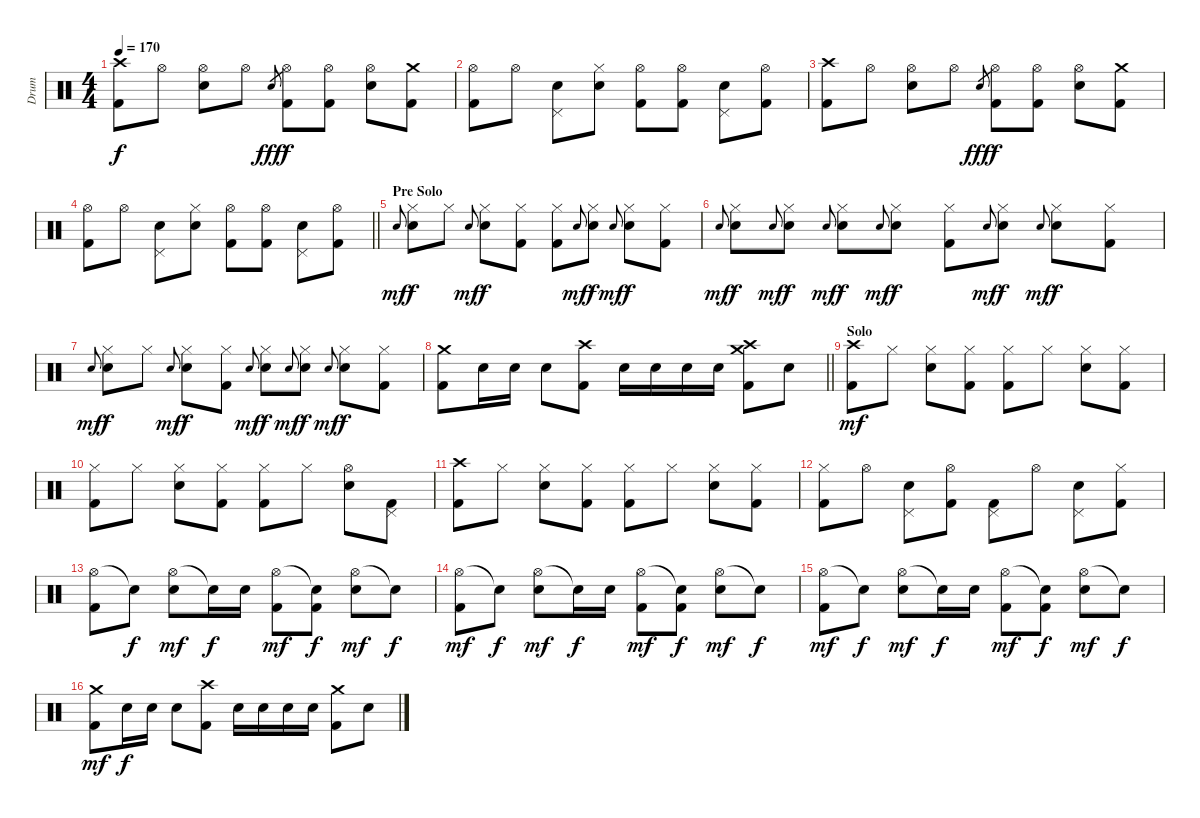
\track ("Drum" "Drum") {instrument percussion}
\staff {score}
\articulation defaults
\ts (4 4)
\tempo 170
\clef neutral
\ks c
("Crash high (hit)" "Kick (hit) 2").8{dy f} "Hi-Hat (open)".8 ("Hi-Hat (open)" "Electric Snare (hit)").8 "Hi-Hat (open)".8 "Electric Snare (hit)".8{gr dy fff} ("Hi-Hat (open)" "Kick (hit) 2").8{dy f} ("Hi-Hat (open)" "Kick (hit) 2").8 ("Hi-Hat (open)" "Electric Snare (hit)").8 ("Crash medium (hit)" "Kick (hit) 2").8 |
("Hi-Hat (open)" "Kick (hit) 2").8 "Hi-Hat (open)".8 ("Pedal Hi-Hat (hit)" "Electric Snare (hit)").8 ("Hi-Hat (closed)" "Electric Snare (hit)").8 ("Hi-Hat (open)" "Kick (hit) 2").8 ("Hi-Hat (open)" "Kick (hit) 2").8 ("Pedal Hi-Hat (hit)" "Electric Snare (hit)").8 ("Hi-Hat (open)" "Kick (hit) 2").8 |
("Crash high (hit)" "Kick (hit) 2").8 "Hi-Hat (open)".8 ("Hi-Hat (open)" "Electric Snare (hit)").8 "Hi-Hat (open)".8 "Electric Snare (hit)".8{gr dy fff} ("Hi-Hat (open)" "Kick (hit) 2").8{dy f} ("Hi-Hat (open)" "Kick (hit) 2").8 ("Hi-Hat (open)" "Electric Snare (hit)").8 ("Crash medium (hit)" "Kick (hit) 2").8 |
\barLineRight lightlight
("Hi-Hat (open)" "Kick (hit) 2").8 "Hi-Hat (open)".8 ("Pedal Hi-Hat (hit)" "Electric Snare (hit)").8 ("Hi-Hat (closed)" "Electric Snare (hit)").8 ("Hi-Hat (open)" "Kick (hit) 2").8 ("Hi-Hat (open)" "Kick (hit) 2").8 ("Pedal Hi-Hat (hit)" "Electric Snare (hit)").8 ("Hi-Hat (open)" "Kick (hit) 2").8 |
\section ("" "Pre Solo")
"Electric Snare (hit)".8{gr onbeat dy mf} ("Hi-Hat (closed)" "Electric Snare (hit)").8{dy f} "Hi-Hat (closed)".8 "Electric Snare (hit)".8{gr onbeat dy mf} ("Hi-Hat (closed)" "Electric Snare (hit)").8{dy f} ("Hi-Hat (closed)" "Kick (hit) 2").8 ("Hi-Hat (closed)" "Kick (hit) 2").8 "Electric Snare (hit)".8{gr onbeat dy mf} ("Hi-Hat (closed)" "Electric Snare (hit)").8{dy f} "Electric Snare (hit)".8{gr onbeat dy mf} ("Hi-Hat (closed)" "Electric Snare (hit)").8{dy f} ("Hi-Hat (closed)" "Kick (hit) 2").8 |
"Electric Snare (hit)".8{gr onbeat dy mf} ("Hi-Hat (closed)" "Electric Snare (hit)").8{dy f} "Electric Snare (hit)".8{gr onbeat dy mf} ("Hi-Hat (closed)" "Electric Snare (hit)").8{dy f} "Electric Snare (hit)".8{gr onbeat dy mf} ("Hi-Hat (closed)" "Electric Snare (hit)").8{dy f} "Electric Snare (hit)".8{gr onbeat dy mf} ("Hi-Hat (closed)" "Electric Snare (hit)").8{dy f} ("Hi-Hat (closed)" "Kick (hit) 2").8 "Electric Snare (hit)".8{gr onbeat dy mf} ("Hi-Hat (closed)" "Electric Snare (hit)").8{dy f} "Electric Snare (hit)".8{gr onbeat dy mf} ("Hi-Hat (closed)" "Electric Snare (hit)").8{dy f} ("Hi-Hat (closed)" "Kick (hit) 2").8 |
"Electric Snare (hit)".8{gr onbeat dy mf} ("Hi-Hat (closed)" "Electric Snare (hit)").8{dy f} "Hi-Hat (closed)".8 "Electric Snare (hit)".8{gr onbeat dy mf} ("Hi-Hat (closed)" "Electric Snare (hit)").8{dy f} ("Hi-Hat (closed)" "Kick (hit) 2").8 "Electric Snare (hit)".8{gr onbeat dy mf} ("Hi-Hat (closed)" "Electric Snare (hit)").8{dy f} "Electric Snare (hit)".8{gr onbeat dy mf} ("Hi-Hat (closed)" "Electric Snare (hit)").8{dy f} "Electric Snare (hit)".8{gr onbeat dy mf} ("Hi-Hat (closed)" "Electric Snare (hit)").8{dy f} ("Hi-Hat (closed)" "Kick (hit) 2").8 |
\barLineRight lightlight
("Crash medium (hit)" "Kick (hit) 2").8 "Electric Snare (hit)".16 "Electric Snare (hit)".16 "Electric Snare (hit)".8 ("Crash high (hit)" "Kick (hit) 2").8 "Electric Snare (hit)".16 "Electric Snare (hit)".16 "Electric Snare (hit)".16 "Electric Snare (hit)".16 ("Crash high (hit)" "Crash medium (hit)" "Kick (hit) 2").8 "Electric Snare (hit)".8 |
\section ("" "Solo")
("Crash high (hit)" "Kick (hit) 2").8{dy mf} "Hi-Hat (closed)".8 ("Hi-Hat (closed)" "Electric Snare (hit)").8 ("Hi-Hat (closed)" "Kick (hit) 2").8 ("Hi-Hat (closed)" "Kick (hit) 2").8 "Hi-Hat (closed)".8 ("Hi-Hat (closed)" "Electric Snare (hit)").8 ("Hi-Hat (closed)" "Kick (hit) 2").8 |
("Hi-Hat (closed)" "Kick (hit) 2").8 "Hi-Hat (closed)".8 ("Hi-Hat (closed)" "Electric Snare (hit)").8 ("Hi-Hat (closed)" "Kick (hit) 2").8 ("Hi-Hat (closed)" "Kick (hit) 2").8 "Hi-Hat (closed)".8 ("Hi-Hat (open)" "Electric Snare (hit)").8 ("Pedal Hi-Hat (hit)" "Kick (hit) 2").8 |
("Crash high (hit)" "Kick (hit) 2").8 "Hi-Hat (closed)".8 ("Hi-Hat (closed)" "Electric Snare (hit)").8 ("Hi-Hat (closed)" "Kick (hit) 2").8 ("Hi-Hat (closed)" "Kick (hit) 2").8 "Hi-Hat (closed)".8 ("Hi-Hat (closed)" "Electric Snare (hit)").8 ("Hi-Hat (closed)" "Kick (hit) 2").8 |
("Hi-Hat (closed)" "Kick (hit) 2").8 "Hi-Hat (open)".8 ("Pedal Hi-Hat (hit)" "Electric Snare (hit)").8 ("Hi-Hat (open)" "Kick (hit) 2").8 ("Pedal Hi-Hat (hit)" "Kick (hit) 2").8 "Hi-Hat (open)".8 ("Pedal Hi-Hat (hit)" "Electric Snare (hit)").8 ("Hi-Hat (closed)" "Kick (hit) 2").8 |
("Hi-Hat (open)" "Kick (hit) 2").8 "Snare (hit)"{t}.8{dy f} ("Hi-Hat (open)" "Electric Snare (hit)").8{dy mf} "Snare (hit)"{t}.16{dy f} "Electric Snare (hit)".16 ("Hi-Hat (open)" "Kick (hit) 2").8{dy mf} ("Snare (hit)"{t} "Kick (hit) 2").8{dy f} ("Hi-Hat (open)" "Electric Snare (hit)").8{dy mf} "Snare (hit)"{t}.8{dy f} |
("Hi-Hat (open)" "Kick (hit) 2").8{dy mf} "Snare (hit)"{t}.8{dy f} ("Hi-Hat (open)" "Electric Snare (hit)").8{dy mf} "Snare (hit)"{t}.16{dy f} "Electric Snare (hit)".16 ("Hi-Hat (open)" "Kick (hit) 2").8{dy mf} ("Snare (hit)"{t} "Kick (hit) 2").8{dy f} ("Hi-Hat (open)" "Electric Snare (hit)").8{dy mf} "Snare (hit)"{t}.8{dy f} |
("Hi-Hat (open)" "Kick (hit) 2").8{dy mf} "Snare (hit)"{t}.8{dy f} ("Hi-Hat (open)" "Electric Snare (hit)").8{dy mf} "Snare (hit)"{t}.16{dy f} "Electric Snare (hit)".16 ("Hi-Hat (open)" "Kick (hit) 2").8{dy mf} ("Snare (hit)"{t} "Kick (hit) 2").8{dy f} ("Hi-Hat (open)" "Electric Snare (hit)").8{dy mf} "Snare (hit)"{t}.8{dy f} |
("Crash medium (hit)" "Kick (hit) 2").8{dy mf} "Electric Snare (hit)".16{dy f} "Electric Snare (hit)".16 "Electric Snare (hit)".8 ("Crash high (hit)" "Kick (hit) 2").8 "Electric Snare (hit)".16 "Electric Snare (hit)".16 "Electric Snare (hit)".16 "Electric Snare (hit)".16 ("Crash medium (hit)" "Kick (hit) 2").8 "Electric Snare (hit)".8
